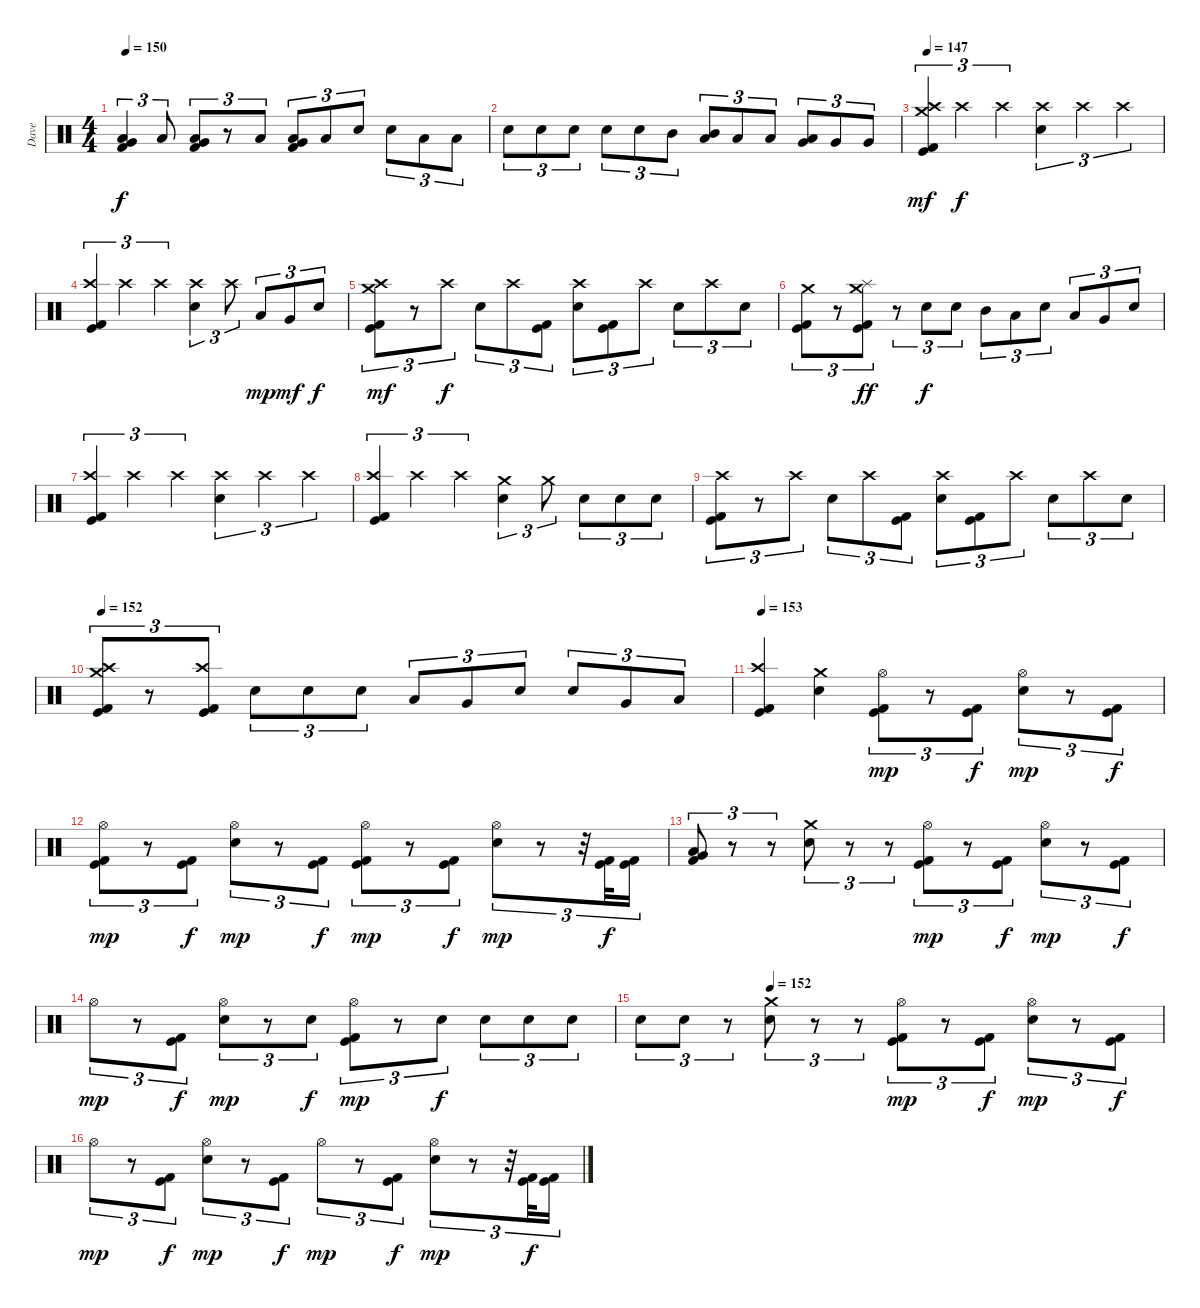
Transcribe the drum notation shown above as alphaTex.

\track ("Dave" "Dave") {instrument percussion}
\staff {score}
\articulation defaults
\ts (4 4)
\tempo 150
\clef neutral
\ks c
("Low Floor Tom (hit)" "Very Low Tom (hit)" "Kick (hit) 2").4{tu (3 2) bd 120 dy f} "Low Floor Tom (hit)".8{tu (3 2)} ("Low Floor Tom (hit)" "Very Low Tom (hit)" "Kick (hit) 2").8{tu (3 2) bd 120} r.8{tu (3 2)} "Low Floor Tom (hit)".8{tu (3 2)} ("Low Floor Tom (hit)" "Very Low Tom (hit)" "Kick (hit) 2").8{tu (3 2) bd 120} "Low Tom (hit)".8{tu (3 2)} "Electric Snare (hit)".8{tu (3 2)} "Electric Snare (hit)".8{tu (3 2)} "Low Tom (hit)".8{tu (3 2)} "Low Tom (hit)".8{tu (3 2)} |
"Electric Snare (hit)".8{tu (3 2)} "Electric Snare (hit)".8{tu (3 2)} "Electric Snare (hit)".8{tu (3 2)} "Electric Snare (hit)".8{tu (3 2)} "Electric Snare (hit)".8{tu (3 2)} "Mid Tom (hit)".8{tu (3 2)} ("Mid Tom (hit)" "Low Tom (hit)").8{tu (3 2)} "Low Tom (hit)".8{tu (3 2)} "Low Tom (hit)".8{tu (3 2)} ("Low Tom (hit)" "Very Low Tom (hit)").8{tu (3 2)} "Very Low Tom (hit)".8{tu (3 2)} "Very Low Tom (hit)".8{tu (3 2)} |
\tempo 147
("Crash medium (hit)" "Crash high (hit)" "Kick (hit)" "Kick (hit) 2").4{tu (3 2) dy mf} "Crash high (hit)".4{tu (3 2) dy f} "Crash high (hit)".4{tu (3 2)} ("Crash high (hit)" "Electric Snare (hit)").4{tu (3 2)} "Crash high (hit)".4{tu (3 2)} "Crash high (hit)".4{tu (3 2)} |
("Crash high (hit)" "Kick (hit)" "Kick (hit) 2").4{tu (3 2)} "Crash high (hit)".4{tu (3 2)} "Crash high (hit)".4{tu (3 2)} ("Crash high (hit)" "Electric Snare (hit)").4{tu (3 2)} "Crash high (hit)".8{tu (3 2)} "Low Floor Tom (hit)".8{tu (3 2) dy mp} "Very Low Tom (hit)".8{tu (3 2) dy mf} "Electric Snare (hit)".8{tu (3 2) dy f} |
("Crash medium (hit)" "Crash high (hit)" "Kick (hit)" "Kick (hit) 2").8{tu (3 2) dy mf} r.8{tu (3 2)} "Crash high (hit)".8{tu (3 2) dy f} "Electric Snare (hit)".8{tu (3 2)} "Crash high (hit)".8{tu (3 2)} ("Kick (hit)" "Kick (hit) 2").8{tu (3 2)} ("Crash high (hit)" "Electric Snare (hit)").8{tu (3 2)} ("Kick (hit)" "Kick (hit) 2").8{tu (3 2)} "Crash high (hit)".8{tu (3 2)} "Electric Snare (hit)".8{tu (3 2)} "Crash high (hit)".8{tu (3 2)} "Electric Snare (hit)".8{tu (3 2)} |
("Crash medium (hit)" "Kick (hit)" "Kick (hit) 2").8{tu (3 2)} r.8{tu (3 2)} ("Crash medium (hit)" "Splash (hit)" "Kick (hit)" "Kick (hit) 2").8{tu (3 2) dy ff} r.8{tu (3 2)} "Electric Snare (hit)".8{tu (3 2) dy f} "Electric Snare (hit)".8{tu (3 2)} "Mid Tom (hit)".8{tu (3 2)} "Low Tom (hit)".8{tu (3 2)} "Electric Snare (hit)".8{tu (3 2)} "Low Tom (hit)".8{tu (3 2)} "Very Low Tom (hit)".8{tu (3 2)} "Electric Snare (hit)".8{tu (3 2)} |
("Crash high (hit)" "Kick (hit)" "Kick (hit) 2").4{tu (3 2)} "Crash high (hit)".4{tu (3 2)} "Crash high (hit)".4{tu (3 2)} ("Crash high (hit)" "Electric Snare (hit)").4{tu (3 2)} "Crash high (hit)".4{tu (3 2)} "Crash high (hit)".4{tu (3 2)} |
("Crash high (hit)" "Kick (hit)" "Kick (hit) 2").4{tu (3 2)} "Crash high (hit)".4{tu (3 2)} "Crash high (hit)".4{tu (3 2)} ("Crash medium (hit)" "Electric Snare (hit)").4{tu (3 2)} "Crash medium (hit)".8{tu (3 2)} "Electric Snare (hit)".8{tu (3 2)} "Electric Snare (hit)".8{tu (3 2)} "Electric Snare (hit)".8{tu (3 2)} |
("Crash high (hit)" "Kick (hit)" "Kick (hit) 2").8{tu (3 2)} r.8{tu (3 2)} "Crash high (hit)".8{tu (3 2)} "Electric Snare (hit)".8{tu (3 2)} "Crash high (hit)".8{tu (3 2)} ("Kick (hit)" "Kick (hit) 2").8{tu (3 2)} ("Crash high (hit)" "Electric Snare (hit)").8{tu (3 2)} ("Kick (hit)" "Kick (hit) 2").8{tu (3 2)} "Crash high (hit)".8{tu (3 2)} "Electric Snare (hit)".8{tu (3 2)} "Crash high (hit)".8{tu (3 2)} "Electric Snare (hit)".8{tu (3 2)} |
\tempo 152
("Crash medium (hit)" "Crash high (hit)" "Kick (hit)" "Kick (hit) 2").8{tu (3 2)} r.8{tu (3 2)} ("Crash high (hit)" "Kick (hit)" "Kick (hit) 2").8{tu (3 2)} "Electric Snare (hit)".8{tu (3 2)} "Electric Snare (hit)".8{tu (3 2)} "Electric Snare (hit)".8{tu (3 2)} "Low Tom (hit)".8{tu (3 2)} "Very Low Tom (hit)".8{tu (3 2)} "Electric Snare (hit)".8{tu (3 2)} "Electric Snare (hit)".8{tu (3 2)} "Very Low Tom (hit)".8{tu (3 2)} "Low Floor Tom (hit)".8{tu (3 2)} |
\tempo 153
("Crash high (hit)" "Kick (hit)" "Kick (hit) 2").4 ("Crash medium (hit)" "Electric Snare (hit)").4 ("Hi-Hat (open)" "Kick (hit)" "Kick (hit) 2").8{tu (3 2) dy mp} r.8{tu (3 2)} ("Kick (hit)" "Kick (hit) 2").8{tu (3 2) dy f} ("Hi-Hat (open)" "Electric Snare (hit)").8{tu (3 2) dy mp} r.8{tu (3 2)} ("Kick (hit)" "Kick (hit) 2").8{tu (3 2) dy f} |
("Hi-Hat (open)" "Kick (hit)" "Kick (hit) 2").8{tu (3 2) dy mp} r.8{tu (3 2)} ("Kick (hit)" "Kick (hit) 2").8{tu (3 2) dy f} ("Hi-Hat (open)" "Electric Snare (hit)").8{tu (3 2) dy mp} r.8{tu (3 2)} ("Kick (hit)" "Kick (hit) 2").8{tu (3 2) dy f} ("Hi-Hat (open)" "Kick (hit)" "Kick (hit) 2").8{tu (3 2) dy mp} r.8{tu (3 2)} ("Kick (hit)" "Kick (hit) 2").8{tu (3 2) dy f} ("Hi-Hat (open)" "Electric Snare (hit)").8{tu (3 2) dy mp} r.8{tu (3 2)} r.32{tu (3 2)} ("Kick (hit)" "Kick (hit) 2").32{tu (3 2) dy f} ("Kick (hit)" "Kick (hit) 2").16{tu (3 2)} |
("Low Floor Tom (hit)" "Very Low Tom (hit)" "Kick (hit) 2").8{tu (3 2)} r.8{tu (3 2)} r.8{tu (3 2)} ("Crash medium (hit)" "Electric Snare (hit)").8{tu (3 2)} r.8{tu (3 2)} r.8{tu (3 2)} ("Hi-Hat (open)" "Kick (hit)" "Kick (hit) 2").8{tu (3 2) dy mp} r.8{tu (3 2)} ("Kick (hit)" "Kick (hit) 2").8{tu (3 2) dy f} ("Hi-Hat (open)" "Electric Snare (hit)").8{tu (3 2) dy mp} r.8{tu (3 2)} ("Kick (hit)" "Kick (hit) 2").8{tu (3 2) dy f} |
"Hi-Hat (open)".8{tu (3 2) dy mp} r.8{tu (3 2)} ("Kick (hit)" "Kick (hit) 2").8{tu (3 2) dy f} ("Hi-Hat (open)" "Electric Snare (hit)").8{tu (3 2) dy mp} r.8{tu (3 2)} "Electric Snare (hit)".8{tu (3 2) dy f} ("Hi-Hat (open)" "Kick (hit)" "Kick (hit) 2").8{tu (3 2) dy mp} r.8{tu (3 2)} "Electric Snare (hit)".8{tu (3 2) dy f} "Electric Snare (hit)".8{tu (3 2)} "Electric Snare (hit)".8{tu (3 2)} "Electric Snare (hit)".8{tu (3 2)} |
\tempo (152 0.25)
"Electric Snare (hit)".8{tu (3 2)} "Electric Snare (hit)".8{tu (3 2)} r.8{tu (3 2)} ("Crash medium (hit)" "Electric Snare (hit)").8{tu (3 2)} r.8{tu (3 2)} r.8{tu (3 2)} ("Hi-Hat (open)" "Kick (hit)" "Kick (hit) 2").8{tu (3 2) dy mp} r.8{tu (3 2)} ("Kick (hit)" "Kick (hit) 2").8{tu (3 2) dy f} ("Hi-Hat (open)" "Electric Snare (hit)").8{tu (3 2) dy mp} r.8{tu (3 2)} ("Kick (hit)" "Kick (hit) 2").8{tu (3 2) dy f} |
"Hi-Hat (open)".8{tu (3 2) dy mp} r.8{tu (3 2)} ("Kick (hit)" "Kick (hit) 2").8{tu (3 2) dy f} ("Hi-Hat (open)" "Electric Snare (hit)").8{tu (3 2) dy mp} r.8{tu (3 2)} ("Kick (hit)" "Kick (hit) 2").8{tu (3 2) dy f} "Hi-Hat (open)".8{tu (3 2) dy mp} r.8{tu (3 2)} ("Kick (hit)" "Kick (hit) 2").8{tu (3 2) dy f} ("Hi-Hat (open)" "Electric Snare (hit)").8{tu (3 2) dy mp} r.8{tu (3 2)} r.32{tu (3 2)} ("Kick (hit)" "Kick (hit) 2").32{tu (3 2) dy f} ("Kick (hit)" "Kick (hit) 2").16{tu (3 2)}
